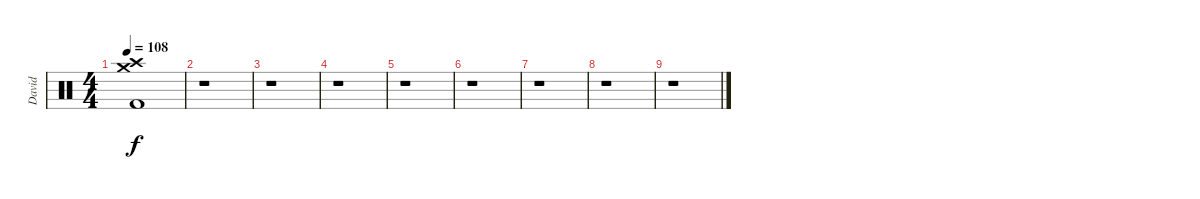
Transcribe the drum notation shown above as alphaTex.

\track ("David" "David") {instrument percussion}
\staff {score}
\articulation defaults
\ts (4 4)
\tempo 108
\clef neutral
\ks c
("Crash medium (hit)" "Crash high (hit)" "Kick (hit) 2").1{dy f} |
r.1 |
r.1 |
r.1 |
r.1 |
r.1 |
r.1 |
r.1 |
r.1
